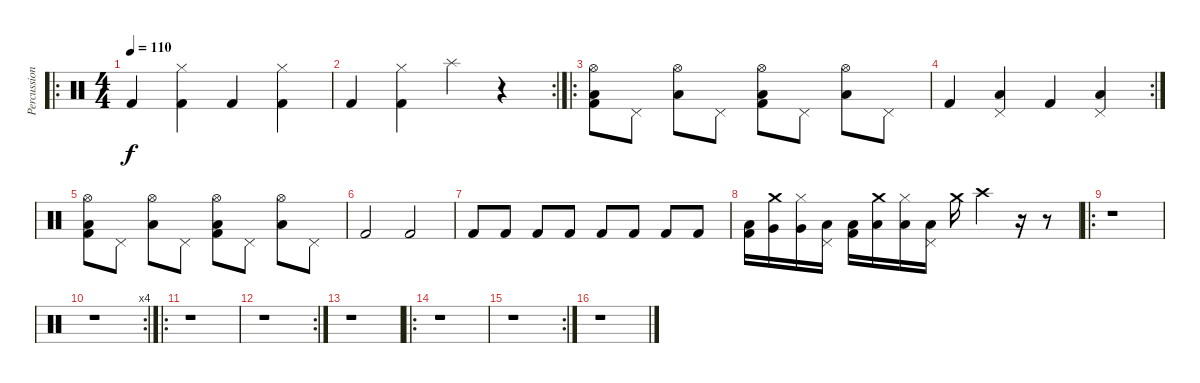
\track ("Percussions" "Percussion") {instrument percussion}
\staff {score}
\articulation defaults
\ro
\ts (4 4)
\tempo 110
\clef neutral
\ks c "Kick (hit) 2".4{dy f}
("Kick (hit) 2" "Hi-Hat (closed)").4 "Kick (hit) 2".4 ("Kick (hit) 2" "Hi-Hat (closed)").4 |
\rc 2 "Kick (hit) 2".4
("Kick (hit) 2" "Hi-Hat (closed)").4 "Splash (hit)".4 r.4 |
\ro
("Kick (hit) 2" "Low Tom (hit)" "Hi-Hat (open)").8 "Pedal Hi-Hat (hit)".8 ("Low Tom (hit)" "Hi-Hat (open)").8 "Pedal Hi-Hat (hit)".8 ("Kick (hit) 2" "Low Tom (hit)" "Hi-Hat (open)").8 "Pedal Hi-Hat (hit)".8 ("Low Tom (hit)" "Hi-Hat (open)").8 "Pedal Hi-Hat (hit)".8 |
\rc 2 "Kick (hit) 2".4
("Low Tom (hit)" "Pedal Hi-Hat (hit)").4 "Kick (hit) 2".4 ("Low Tom (hit)" "Pedal Hi-Hat (hit)").4 |
("Kick (hit) 2" "Low Tom (hit)" "Hi-Hat (open)").8 "Pedal Hi-Hat (hit)".8 ("Low Tom (hit)" "Hi-Hat (open)").8 "Pedal Hi-Hat (hit)".8 ("Kick (hit) 2" "Low Tom (hit)" "Hi-Hat (open)").8 "Pedal Hi-Hat (hit)".8 ("Low Tom (hit)" "Hi-Hat (open)").8 "Pedal Hi-Hat (hit)".8 |
"Kick (hit) 2".2 "Kick (hit) 2".2 |
"Kick (hit) 2".8 "Kick (hit) 2".8 "Kick (hit) 2".8 "Kick (hit) 2".8 "Kick (hit) 2".8 "Kick (hit) 2".8 "Kick (hit) 2".8 "Kick (hit) 2".8 |
("Kick (hit) 2" "Low Tom (hit)").16 ("Crash medium (hit)" "Very Low Tom (hit)").16 ("Hi-Hat (closed)" "Very Low Tom (hit)").16 ("Pedal Hi-Hat (hit)" "Low Tom (hit)").16 ("Kick (hit) 2" "Low Tom (hit)").16 ("Crash medium (hit)" "Low Floor Tom (hit)").16 ("Hi-Hat (closed)" "Low Floor Tom (hit)").16 ("Pedal Hi-Hat (hit)" "Low Tom (hit)").16 "Crash medium (hit)".16 "Crash high (hit)".4 r.16 r.8 |
\ro
r.1 |
\rc 4
r.1 |
\ro
r.1 |
\rc 2
r.1 |
r.1 |
\ro
r.1 |
\rc 2
r.1 |
r.1
